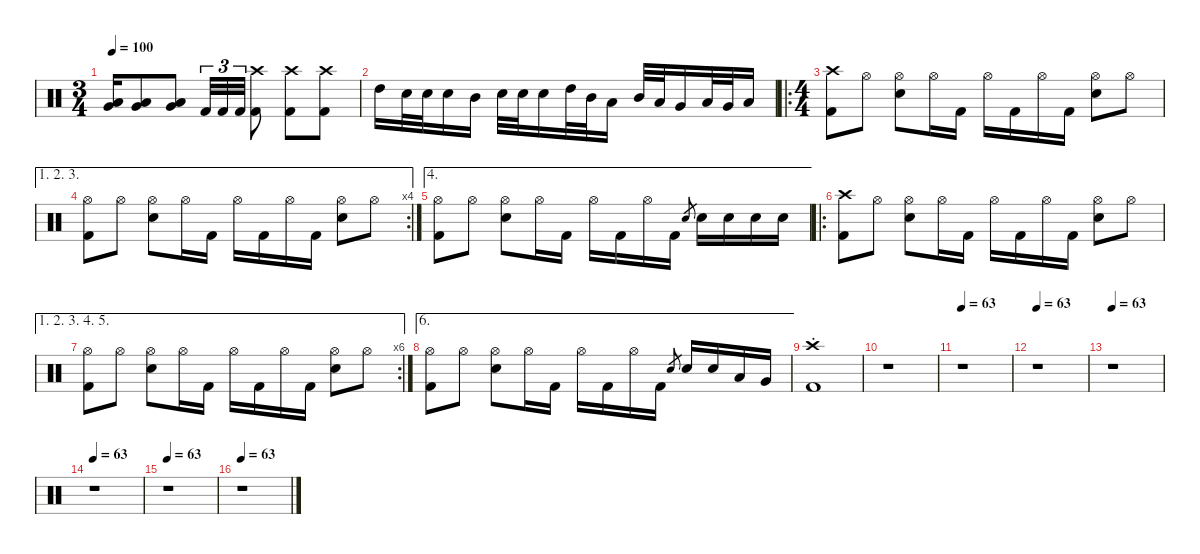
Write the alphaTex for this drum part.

\defaultSystemsLayout 4
\hideDynamics
\bracketExtendMode nobrackets
\singleTrackTrackNamePolicy hidden
\multiTrackTrackNamePolicy hidden
\firstSystemTrackNameMode fullname
\firstSystemTrackNameOrientation horizontal
\otherSystemsTrackNameOrientation horizontal
\track ("Drums" "drm.") {instrument percussion}
\staff {score}
\articulation defaults
\ts (3 4)
\tempo 100
\clef neutral
\ks c
("Very Low Tom (hit)" "Low Floor Tom (hit)").16{dy ff beam Up} ("Very Low Tom (hit)" "Low Floor Tom (hit)").8{beam Up} ("Very Low Tom (hit)" "Low Floor Tom (hit)").8{beam Up} "Kick (hit) 2".32{tu (3 2) dy f beam Up} "Kick (hit) 2".32{tu (3 2) beam Up} "Kick (hit) 2".32{tu (3 2) beam Up} ("Crash high (hit)" "Kick (hit) 2").8{beam Down} ("Crash high (hit)" "Kick (hit) 2").8{beam Down} ("Crash high (hit)" "Kick (hit) 2").8{beam Down} |
"High Tom (hit)".16{beam Down} "Snare (hit) 2".32{beam Down} "Snare (hit) 2".32{dy mf beam Down} "Snare (hit) 2".16{dy f beam Down} "Mid Tom (hit)".16{dy ff beam Down} "Snare (hit) 2".32{dy f beam Down} "Snare (hit) 2".32{dy mf beam Down} "Snare (hit) 2".16{dy f beam Down} "High Tom (hit)".32{beam Down} "Mid Tom (hit)".32{dy mf beam Down} "Low Tom (hit)".16{dy f beam Down} "Mid Tom (hit)".32{beam Up} "Low Tom (hit)".32{dy mf beam Up} "Very Low Tom (hit)".16{dy f beam Up} "Low Tom (hit)".32{beam Up} "Very Low Tom (hit)".32{dy mf beam Up} "Low Floor Tom (hit)".16{dy f beam Up} |
\ro
\ts (4 4)
\beaming (8 2 2 2 2)
("Crash high (hit)" "Kick (hit) 2").8{beam Down} "Hi-Hat (open)".8{beam Down} ("Hi-Hat (open)" "Snare (hit) 2").8{beam Down} "Hi-Hat (open)".16{beam Down} "Kick (hit) 2".16{beam Down} "Hi-Hat (open)".16{beam Down} "Kick (hit) 2".16{beam Down} "Hi-Hat (open)".16{beam Down} "Kick (hit) 2".16{beam Down} ("Hi-Hat (open)" "Snare (hit) 2").8{beam Down} "Hi-Hat (open)".8{beam Down} |
\ae (1 2 3)
\rc 4
("Hi-Hat (open)" "Kick (hit) 2").8{beam Down} "Hi-Hat (open)".8{beam Down} ("Hi-Hat (open)" "Snare (hit) 2").8{beam Down} "Hi-Hat (open)".16{beam Down} "Kick (hit) 2".16{beam Down} "Hi-Hat (open)".16{beam Down} "Kick (hit) 2".16{beam Down} "Hi-Hat (open)".16{beam Down} "Kick (hit) 2".16{beam Down} ("Hi-Hat (open)" "Snare (hit) 2").8{beam Down} "Hi-Hat (open)".8{beam Down} |
\ae 4
("Hi-Hat (open)" "Kick (hit) 2").8{beam Down} "Hi-Hat (open)".8{beam Down} ("Hi-Hat (open)" "Snare (hit) 2").8{beam Down} "Hi-Hat (open)".16{beam Down} "Kick (hit) 2".16{beam Down} "Hi-Hat (open)".16{beam Down} "Kick (hit) 2".16{beam Down} "Hi-Hat (open)".16{beam Down} "Kick (hit) 2".16{beam Down} "Electric Snare (hit)".8{gr dy mf beam Up} "Snare (hit) 2".16{dy f beam Down} "Snare (hit) 2".16{beam Down} "Snare (hit) 2".16{beam Down} "Snare (hit) 2".16{beam Down} |
\ro
("Crash high (hit)" "Kick (hit) 2").8{beam Down} "Hi-Hat (open)".8{beam Down} ("Hi-Hat (open)" "Snare (hit) 2").8{beam Down} "Hi-Hat (open)".16{beam Down} "Kick (hit) 2".16{beam Down} "Hi-Hat (open)".16{beam Down} "Kick (hit) 2".16{beam Down} "Hi-Hat (open)".16{beam Down} "Kick (hit) 2".16{beam Down} ("Hi-Hat (open)" "Snare (hit) 2").8{beam Down} "Hi-Hat (open)".8{beam Down} |
\ae (1 2 3 4 5)
\rc 6
("Hi-Hat (open)" "Kick (hit) 2").8{beam Down} "Hi-Hat (open)".8{beam Down} ("Hi-Hat (open)" "Snare (hit) 2").8{beam Down} "Hi-Hat (open)".16{beam Down} "Kick (hit) 2".16{beam Down} "Hi-Hat (open)".16{beam Down} "Kick (hit) 2".16{beam Down} "Hi-Hat (open)".16{beam Down} "Kick (hit) 2".16{beam Down} ("Hi-Hat (open)" "Snare (hit) 2").8{beam Down} "Hi-Hat (open)".8{beam Down} |
\ae 6
("Hi-Hat (open)" "Kick (hit) 2").8{beam Down} "Hi-Hat (open)".8{beam Down} ("Hi-Hat (open)" "Snare (hit) 2").8{beam Down} "Hi-Hat (open)".16{beam Down} "Kick (hit) 2".16{beam Down} "Hi-Hat (open)".16{beam Down} "Kick (hit) 2".16{beam Down} "Hi-Hat (open)".16{beam Down} "Kick (hit) 2".16{beam Down} "Electric Snare (hit)".8{gr dy mf beam Up} "Snare (hit) 2".16{dy ff beam Up} "Snare (hit) 2".16{beam Up} "Low Tom (hit)".16{dy fff beam Up} "Very Low Tom (hit)".16{dy ff beam Up} |
("Crash high (hit)"{st} "Kick (hit) 2"{st}).1{beam Down} |
r.1{beam Down} |
\tempo 63
r.1{beam Down} |
\tempo 63
r.1{beam Down} |
\tempo 63
r.1{beam Down} |
\tempo 63
r.1{beam Down} |
\tempo 63
r.1{beam Down} |
\tempo 63
r.1{beam Down}
